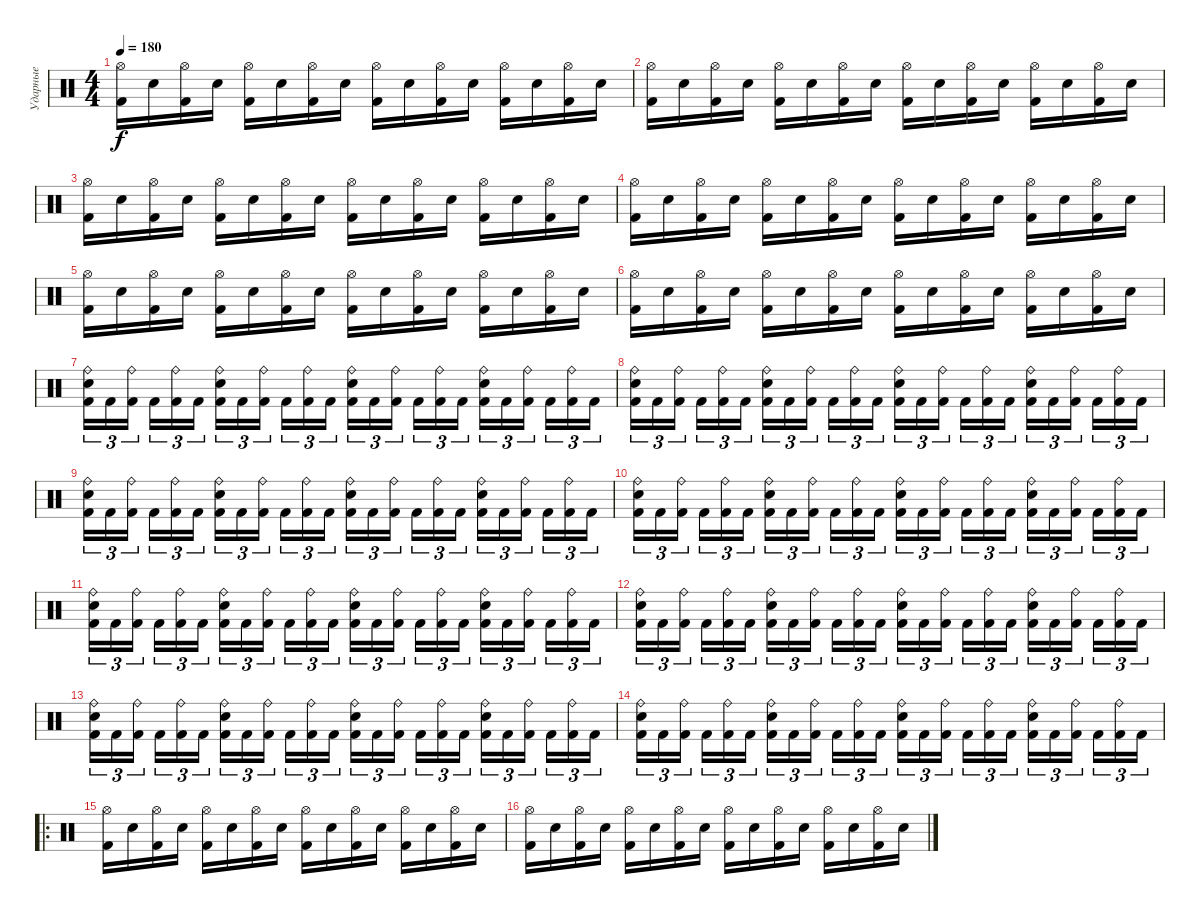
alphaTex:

\track ("Ударные" "Ударные") {instrument percussion}
\staff {score}
\articulation defaults
\ts (4 4)
\tempo 180
\clef neutral
\ks c
("Kick (hit) 2" "Hi-Hat (open)").16{dy f} "Electric Snare (hit)".16 ("Kick (hit) 2" "Hi-Hat (open)").16 "Electric Snare (hit)".16 ("Kick (hit) 2" "Hi-Hat (open)").16 "Electric Snare (hit)".16 ("Kick (hit) 2" "Hi-Hat (open)").16 "Electric Snare (hit)".16 ("Kick (hit) 2" "Hi-Hat (open)").16 "Electric Snare (hit)".16 ("Kick (hit) 2" "Hi-Hat (open)").16 "Electric Snare (hit)".16 ("Kick (hit) 2" "Hi-Hat (open)").16 "Electric Snare (hit)".16 ("Kick (hit) 2" "Hi-Hat (open)").16 "Electric Snare (hit)".16 |
("Kick (hit) 2" "Hi-Hat (open)").16 "Electric Snare (hit)".16 ("Kick (hit) 2" "Hi-Hat (open)").16 "Electric Snare (hit)".16 ("Kick (hit) 2" "Hi-Hat (open)").16 "Electric Snare (hit)".16 ("Kick (hit) 2" "Hi-Hat (open)").16 "Electric Snare (hit)".16 ("Kick (hit) 2" "Hi-Hat (open)").16 "Electric Snare (hit)".16 ("Kick (hit) 2" "Hi-Hat (open)").16 "Electric Snare (hit)".16 ("Kick (hit) 2" "Hi-Hat (open)").16 "Electric Snare (hit)".16 ("Kick (hit) 2" "Hi-Hat (open)").16 "Electric Snare (hit)".16 |
("Kick (hit) 2" "Hi-Hat (open)").16 "Electric Snare (hit)".16 ("Kick (hit) 2" "Hi-Hat (open)").16 "Electric Snare (hit)".16 ("Kick (hit) 2" "Hi-Hat (open)").16 "Electric Snare (hit)".16 ("Kick (hit) 2" "Hi-Hat (open)").16 "Electric Snare (hit)".16 ("Kick (hit) 2" "Hi-Hat (open)").16 "Electric Snare (hit)".16 ("Kick (hit) 2" "Hi-Hat (open)").16 "Electric Snare (hit)".16 ("Kick (hit) 2" "Hi-Hat (open)").16 "Electric Snare (hit)".16 ("Kick (hit) 2" "Hi-Hat (open)").16 "Electric Snare (hit)".16 |
("Kick (hit) 2" "Hi-Hat (open)").16 "Electric Snare (hit)".16 ("Kick (hit) 2" "Hi-Hat (open)").16 "Electric Snare (hit)".16 ("Kick (hit) 2" "Hi-Hat (open)").16 "Electric Snare (hit)".16 ("Kick (hit) 2" "Hi-Hat (open)").16 "Electric Snare (hit)".16 ("Kick (hit) 2" "Hi-Hat (open)").16 "Electric Snare (hit)".16 ("Kick (hit) 2" "Hi-Hat (open)").16 "Electric Snare (hit)".16 ("Kick (hit) 2" "Hi-Hat (open)").16 "Electric Snare (hit)".16 ("Kick (hit) 2" "Hi-Hat (open)").16 "Electric Snare (hit)".16 |
("Kick (hit) 2" "Hi-Hat (open)").16 "Electric Snare (hit)".16 ("Kick (hit) 2" "Hi-Hat (open)").16 "Electric Snare (hit)".16 ("Kick (hit) 2" "Hi-Hat (open)").16 "Electric Snare (hit)".16 ("Kick (hit) 2" "Hi-Hat (open)").16 "Electric Snare (hit)".16 ("Kick (hit) 2" "Hi-Hat (open)").16 "Electric Snare (hit)".16 ("Kick (hit) 2" "Hi-Hat (open)").16 "Electric Snare (hit)".16 ("Kick (hit) 2" "Hi-Hat (open)").16 "Electric Snare (hit)".16 ("Kick (hit) 2" "Hi-Hat (open)").16 "Electric Snare (hit)".16 |
("Kick (hit) 2" "Hi-Hat (open)").16 "Electric Snare (hit)".16 ("Kick (hit) 2" "Hi-Hat (open)").16 "Electric Snare (hit)".16 ("Kick (hit) 2" "Hi-Hat (open)").16 "Electric Snare (hit)".16 ("Kick (hit) 2" "Hi-Hat (open)").16 "Electric Snare (hit)".16 ("Kick (hit) 2" "Hi-Hat (open)").16 "Electric Snare (hit)".16 ("Kick (hit) 2" "Hi-Hat (open)").16 "Electric Snare (hit)".16 ("Kick (hit) 2" "Hi-Hat (open)").16 "Electric Snare (hit)".16 ("Kick (hit) 2" "Hi-Hat (open)").16 "Electric Snare (hit)".16 |
("Kick (hit) 2" "Ride (bell)" "Electric Snare (hit)").16{tu (3 2)} "Kick (hit) 2".16{tu (3 2)} ("Kick (hit) 2" "Ride (bell)").16{tu (3 2) beam splitsecondary} "Kick (hit) 2".16{tu (3 2)} ("Kick (hit) 2" "Ride (bell)").16{tu (3 2)} "Kick (hit) 2".16{tu (3 2)} ("Kick (hit) 2" "Ride (bell)" "Electric Snare (hit)").16{tu (3 2)} "Kick (hit) 2".16{tu (3 2)} ("Kick (hit) 2" "Ride (bell)").16{tu (3 2) beam splitsecondary} "Kick (hit) 2".16{tu (3 2)} ("Kick (hit) 2" "Ride (bell)").16{tu (3 2)} "Kick (hit) 2".16{tu (3 2)} ("Kick (hit) 2" "Ride (bell)" "Electric Snare (hit)").16{tu (3 2)} "Kick (hit) 2".16{tu (3 2)} ("Kick (hit) 2" "Ride (bell)").16{tu (3 2) beam splitsecondary} "Kick (hit) 2".16{tu (3 2)} ("Kick (hit) 2" "Ride (bell)").16{tu (3 2)} "Kick (hit) 2".16{tu (3 2)} ("Kick (hit) 2" "Ride (bell)" "Electric Snare (hit)").16{tu (3 2)} "Kick (hit) 2".16{tu (3 2)} ("Kick (hit) 2" "Ride (bell)").16{tu (3 2) beam splitsecondary} "Kick (hit) 2".16{tu (3 2)} ("Kick (hit) 2" "Ride (bell)").16{tu (3 2)} "Kick (hit) 2".16{tu (3 2)} |
("Kick (hit) 2" "Ride (bell)" "Electric Snare (hit)").16{tu (3 2)} "Kick (hit) 2".16{tu (3 2)} ("Kick (hit) 2" "Ride (bell)").16{tu (3 2) beam splitsecondary} "Kick (hit) 2".16{tu (3 2)} ("Kick (hit) 2" "Ride (bell)").16{tu (3 2)} "Kick (hit) 2".16{tu (3 2)} ("Kick (hit) 2" "Ride (bell)" "Electric Snare (hit)").16{tu (3 2)} "Kick (hit) 2".16{tu (3 2)} ("Kick (hit) 2" "Ride (bell)").16{tu (3 2) beam splitsecondary} "Kick (hit) 2".16{tu (3 2)} ("Kick (hit) 2" "Ride (bell)").16{tu (3 2)} "Kick (hit) 2".16{tu (3 2)} ("Kick (hit) 2" "Ride (bell)" "Electric Snare (hit)").16{tu (3 2)} "Kick (hit) 2".16{tu (3 2)} ("Kick (hit) 2" "Ride (bell)").16{tu (3 2) beam splitsecondary} "Kick (hit) 2".16{tu (3 2)} ("Kick (hit) 2" "Ride (bell)").16{tu (3 2)} "Kick (hit) 2".16{tu (3 2)} ("Kick (hit) 2" "Ride (bell)" "Electric Snare (hit)").16{tu (3 2)} "Kick (hit) 2".16{tu (3 2)} ("Kick (hit) 2" "Ride (bell)").16{tu (3 2) beam splitsecondary} "Kick (hit) 2".16{tu (3 2)} ("Kick (hit) 2" "Ride (bell)").16{tu (3 2)} "Kick (hit) 2".16{tu (3 2)} |
("Kick (hit) 2" "Ride (bell)" "Electric Snare (hit)").16{tu (3 2)} "Kick (hit) 2".16{tu (3 2)} ("Kick (hit) 2" "Ride (bell)").16{tu (3 2) beam splitsecondary} "Kick (hit) 2".16{tu (3 2)} ("Kick (hit) 2" "Ride (bell)").16{tu (3 2)} "Kick (hit) 2".16{tu (3 2)} ("Kick (hit) 2" "Ride (bell)" "Electric Snare (hit)").16{tu (3 2)} "Kick (hit) 2".16{tu (3 2)} ("Kick (hit) 2" "Ride (bell)").16{tu (3 2) beam splitsecondary} "Kick (hit) 2".16{tu (3 2)} ("Kick (hit) 2" "Ride (bell)").16{tu (3 2)} "Kick (hit) 2".16{tu (3 2)} ("Kick (hit) 2" "Ride (bell)" "Electric Snare (hit)").16{tu (3 2)} "Kick (hit) 2".16{tu (3 2)} ("Kick (hit) 2" "Ride (bell)").16{tu (3 2) beam splitsecondary} "Kick (hit) 2".16{tu (3 2)} ("Kick (hit) 2" "Ride (bell)").16{tu (3 2)} "Kick (hit) 2".16{tu (3 2)} ("Kick (hit) 2" "Ride (bell)" "Electric Snare (hit)").16{tu (3 2)} "Kick (hit) 2".16{tu (3 2)} ("Kick (hit) 2" "Ride (bell)").16{tu (3 2) beam splitsecondary} "Kick (hit) 2".16{tu (3 2)} ("Kick (hit) 2" "Ride (bell)").16{tu (3 2)} "Kick (hit) 2".16{tu (3 2)} |
("Kick (hit) 2" "Ride (bell)" "Electric Snare (hit)").16{tu (3 2)} "Kick (hit) 2".16{tu (3 2)} ("Kick (hit) 2" "Ride (bell)").16{tu (3 2) beam splitsecondary} "Kick (hit) 2".16{tu (3 2)} ("Kick (hit) 2" "Ride (bell)").16{tu (3 2)} "Kick (hit) 2".16{tu (3 2)} ("Kick (hit) 2" "Ride (bell)" "Electric Snare (hit)").16{tu (3 2)} "Kick (hit) 2".16{tu (3 2)} ("Kick (hit) 2" "Ride (bell)").16{tu (3 2) beam splitsecondary} "Kick (hit) 2".16{tu (3 2)} ("Kick (hit) 2" "Ride (bell)").16{tu (3 2)} "Kick (hit) 2".16{tu (3 2)} ("Kick (hit) 2" "Ride (bell)" "Electric Snare (hit)").16{tu (3 2)} "Kick (hit) 2".16{tu (3 2)} ("Kick (hit) 2" "Ride (bell)").16{tu (3 2) beam splitsecondary} "Kick (hit) 2".16{tu (3 2)} ("Kick (hit) 2" "Ride (bell)").16{tu (3 2)} "Kick (hit) 2".16{tu (3 2)} ("Kick (hit) 2" "Ride (bell)" "Electric Snare (hit)").16{tu (3 2)} "Kick (hit) 2".16{tu (3 2)} ("Kick (hit) 2" "Ride (bell)").16{tu (3 2) beam splitsecondary} "Kick (hit) 2".16{tu (3 2)} ("Kick (hit) 2" "Ride (bell)").16{tu (3 2)} "Kick (hit) 2".16{tu (3 2)} |
("Kick (hit) 2" "Ride (bell)" "Electric Snare (hit)").16{tu (3 2)} "Kick (hit) 2".16{tu (3 2)} ("Kick (hit) 2" "Ride (bell)").16{tu (3 2) beam splitsecondary} "Kick (hit) 2".16{tu (3 2)} ("Kick (hit) 2" "Ride (bell)").16{tu (3 2)} "Kick (hit) 2".16{tu (3 2)} ("Kick (hit) 2" "Ride (bell)" "Electric Snare (hit)").16{tu (3 2)} "Kick (hit) 2".16{tu (3 2)} ("Kick (hit) 2" "Ride (bell)").16{tu (3 2) beam splitsecondary} "Kick (hit) 2".16{tu (3 2)} ("Kick (hit) 2" "Ride (bell)").16{tu (3 2)} "Kick (hit) 2".16{tu (3 2)} ("Kick (hit) 2" "Ride (bell)" "Electric Snare (hit)").16{tu (3 2)} "Kick (hit) 2".16{tu (3 2)} ("Kick (hit) 2" "Ride (bell)").16{tu (3 2) beam splitsecondary} "Kick (hit) 2".16{tu (3 2)} ("Kick (hit) 2" "Ride (bell)").16{tu (3 2)} "Kick (hit) 2".16{tu (3 2)} ("Kick (hit) 2" "Ride (bell)" "Electric Snare (hit)").16{tu (3 2)} "Kick (hit) 2".16{tu (3 2)} ("Kick (hit) 2" "Ride (bell)").16{tu (3 2) beam splitsecondary} "Kick (hit) 2".16{tu (3 2)} ("Kick (hit) 2" "Ride (bell)").16{tu (3 2)} "Kick (hit) 2".16{tu (3 2)} |
("Kick (hit) 2" "Ride (bell)" "Electric Snare (hit)").16{tu (3 2)} "Kick (hit) 2".16{tu (3 2)} ("Kick (hit) 2" "Ride (bell)").16{tu (3 2) beam splitsecondary} "Kick (hit) 2".16{tu (3 2)} ("Kick (hit) 2" "Ride (bell)").16{tu (3 2)} "Kick (hit) 2".16{tu (3 2)} ("Kick (hit) 2" "Ride (bell)" "Electric Snare (hit)").16{tu (3 2)} "Kick (hit) 2".16{tu (3 2)} ("Kick (hit) 2" "Ride (bell)").16{tu (3 2) beam splitsecondary} "Kick (hit) 2".16{tu (3 2)} ("Kick (hit) 2" "Ride (bell)").16{tu (3 2)} "Kick (hit) 2".16{tu (3 2)} ("Kick (hit) 2" "Ride (bell)" "Electric Snare (hit)").16{tu (3 2)} "Kick (hit) 2".16{tu (3 2)} ("Kick (hit) 2" "Ride (bell)").16{tu (3 2) beam splitsecondary} "Kick (hit) 2".16{tu (3 2)} ("Kick (hit) 2" "Ride (bell)").16{tu (3 2)} "Kick (hit) 2".16{tu (3 2)} ("Kick (hit) 2" "Ride (bell)" "Electric Snare (hit)").16{tu (3 2)} "Kick (hit) 2".16{tu (3 2)} ("Kick (hit) 2" "Ride (bell)").16{tu (3 2) beam splitsecondary} "Kick (hit) 2".16{tu (3 2)} ("Kick (hit) 2" "Ride (bell)").16{tu (3 2)} "Kick (hit) 2".16{tu (3 2)} |
("Kick (hit) 2" "Ride (bell)" "Electric Snare (hit)").16{tu (3 2)} "Kick (hit) 2".16{tu (3 2)} ("Kick (hit) 2" "Ride (bell)").16{tu (3 2) beam splitsecondary} "Kick (hit) 2".16{tu (3 2)} ("Kick (hit) 2" "Ride (bell)").16{tu (3 2)} "Kick (hit) 2".16{tu (3 2)} ("Kick (hit) 2" "Ride (bell)" "Electric Snare (hit)").16{tu (3 2)} "Kick (hit) 2".16{tu (3 2)} ("Kick (hit) 2" "Ride (bell)").16{tu (3 2) beam splitsecondary} "Kick (hit) 2".16{tu (3 2)} ("Kick (hit) 2" "Ride (bell)").16{tu (3 2)} "Kick (hit) 2".16{tu (3 2)} ("Kick (hit) 2" "Ride (bell)" "Electric Snare (hit)").16{tu (3 2)} "Kick (hit) 2".16{tu (3 2)} ("Kick (hit) 2" "Ride (bell)").16{tu (3 2) beam splitsecondary} "Kick (hit) 2".16{tu (3 2)} ("Kick (hit) 2" "Ride (bell)").16{tu (3 2)} "Kick (hit) 2".16{tu (3 2)} ("Kick (hit) 2" "Ride (bell)" "Electric Snare (hit)").16{tu (3 2)} "Kick (hit) 2".16{tu (3 2)} ("Kick (hit) 2" "Ride (bell)").16{tu (3 2) beam splitsecondary} "Kick (hit) 2".16{tu (3 2)} ("Kick (hit) 2" "Ride (bell)").16{tu (3 2)} "Kick (hit) 2".16{tu (3 2)} |
("Kick (hit) 2" "Ride (bell)" "Electric Snare (hit)").16{tu (3 2)} "Kick (hit) 2".16{tu (3 2)} ("Kick (hit) 2" "Ride (bell)").16{tu (3 2) beam splitsecondary} "Kick (hit) 2".16{tu (3 2)} ("Kick (hit) 2" "Ride (bell)").16{tu (3 2)} "Kick (hit) 2".16{tu (3 2)} ("Kick (hit) 2" "Ride (bell)" "Electric Snare (hit)").16{tu (3 2)} "Kick (hit) 2".16{tu (3 2)} ("Kick (hit) 2" "Ride (bell)").16{tu (3 2) beam splitsecondary} "Kick (hit) 2".16{tu (3 2)} ("Kick (hit) 2" "Ride (bell)").16{tu (3 2)} "Kick (hit) 2".16{tu (3 2)} ("Kick (hit) 2" "Ride (bell)" "Electric Snare (hit)").16{tu (3 2)} "Kick (hit) 2".16{tu (3 2)} ("Kick (hit) 2" "Ride (bell)").16{tu (3 2) beam splitsecondary} "Kick (hit) 2".16{tu (3 2)} ("Kick (hit) 2" "Ride (bell)").16{tu (3 2)} "Kick (hit) 2".16{tu (3 2)} ("Kick (hit) 2" "Ride (bell)" "Electric Snare (hit)").16{tu (3 2)} "Kick (hit) 2".16{tu (3 2)} ("Kick (hit) 2" "Ride (bell)").16{tu (3 2) beam splitsecondary} "Kick (hit) 2".16{tu (3 2)} ("Kick (hit) 2" "Ride (bell)").16{tu (3 2)} "Kick (hit) 2".16{tu (3 2)} |
\ro
("Kick (hit) 2" "Hi-Hat (open)").16 "Electric Snare (hit)".16 ("Kick (hit) 2" "Hi-Hat (open)").16 "Electric Snare (hit)".16 ("Kick (hit) 2" "Hi-Hat (open)").16 "Electric Snare (hit)".16 ("Kick (hit) 2" "Hi-Hat (open)").16 "Electric Snare (hit)".16 ("Kick (hit) 2" "Hi-Hat (open)").16 "Electric Snare (hit)".16 ("Kick (hit) 2" "Hi-Hat (open)").16 "Electric Snare (hit)".16 ("Kick (hit) 2" "Hi-Hat (open)").16 "Electric Snare (hit)".16 ("Kick (hit) 2" "Hi-Hat (open)").16 "Electric Snare (hit)".16 |
("Kick (hit) 2" "Hi-Hat (open)").16 "Electric Snare (hit)".16 ("Kick (hit) 2" "Hi-Hat (open)").16 "Electric Snare (hit)".16 ("Kick (hit) 2" "Hi-Hat (open)").16 "Electric Snare (hit)".16 ("Kick (hit) 2" "Hi-Hat (open)").16 "Electric Snare (hit)".16 ("Kick (hit) 2" "Hi-Hat (open)").16 "Electric Snare (hit)".16 ("Kick (hit) 2" "Hi-Hat (open)").16 "Electric Snare (hit)".16 ("Kick (hit) 2" "Hi-Hat (open)").16 "Electric Snare (hit)".16 ("Kick (hit) 2" "Hi-Hat (open)").16 "Electric Snare (hit)".16
